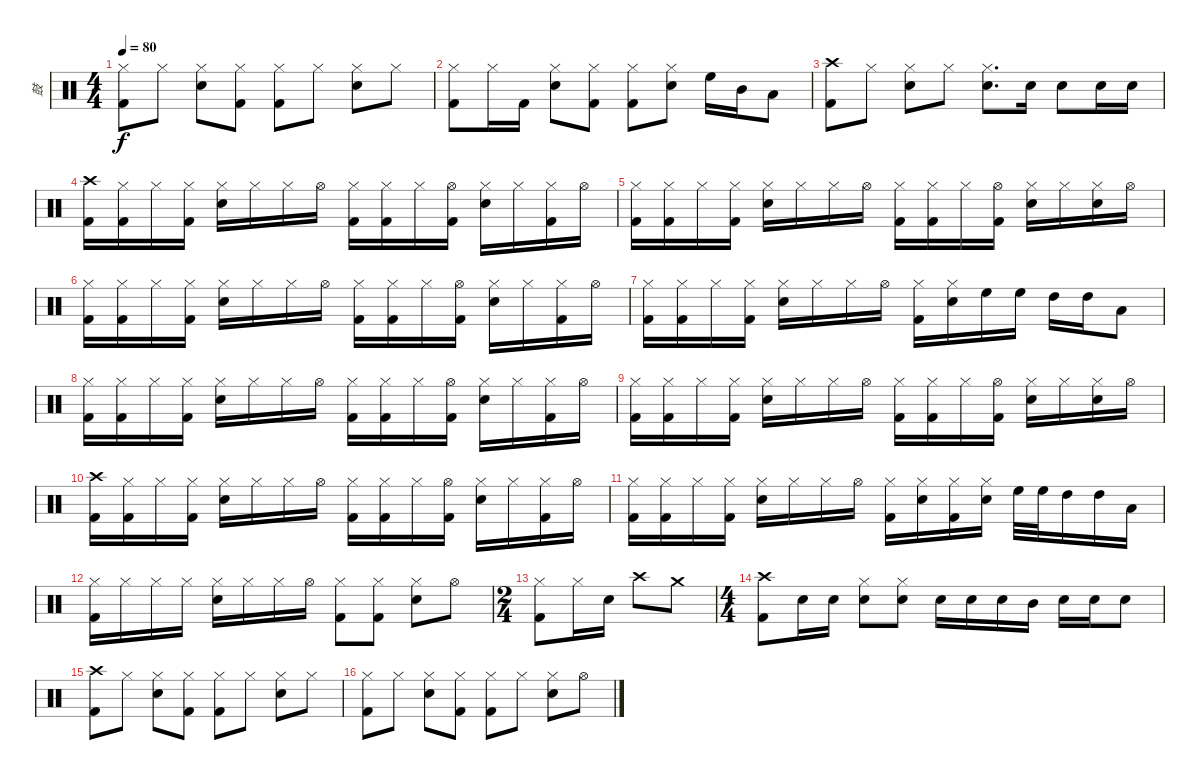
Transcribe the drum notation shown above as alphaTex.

\track ("鼓" "鼓") {instrument percussion}
\staff {score}
\articulation defaults
\ts (4 4)
\tempo 80
\clef neutral
\ks c
("Hi-Hat (closed)" "Kick (hit) 2").8{dy f} "Hi-Hat (closed)".8 ("Hi-Hat (closed)" "Snare (hit) 2").8 ("Hi-Hat (closed)" "Kick (hit) 2").8 ("Hi-Hat (closed)" "Kick (hit) 2").8 "Hi-Hat (closed)".8 ("Hi-Hat (closed)" "Snare (hit) 2").8 "Hi-Hat (closed)".8 |
("Hi-Hat (closed)" "Kick (hit) 2").8 "Hi-Hat (closed)".16 "Kick (hit) 2".16 ("Hi-Hat (closed)" "Snare (hit) 2").8 ("Hi-Hat (closed)" "Kick (hit) 2").8 ("Hi-Hat (closed)" "Kick (hit) 2").8 ("Hi-Hat (closed)" "Snare (hit) 2").8 "High Floor Tom (hit)".16 "Mid Tom (hit)".16 "Low Tom (hit)".8 |
("Crash high (hit)" "Kick (hit) 2").8 "Hi-Hat (closed)".8 ("Hi-Hat (closed)" "Snare (hit) 2").8 "Hi-Hat (closed)".8 ("Hi-Hat (closed)" "Snare (hit) 2").8{d} "Snare (hit) 2".16 "Snare (hit) 2".8 "Snare (hit) 2".16 "Snare (hit) 2".16 |
("Crash high (hit)" "Kick (hit) 2").16 ("Hi-Hat (closed)" "Kick (hit) 2").16 "Hi-Hat (closed)".16 ("Hi-Hat (closed)" "Kick (hit) 2").16 ("Hi-Hat (closed)" "Snare (hit) 2").16 "Hi-Hat (closed)".16 "Hi-Hat (closed)".16 "Hi-Hat (open)".16 ("Hi-Hat (closed)" "Kick (hit) 2").16 ("Hi-Hat (closed)" "Kick (hit) 2").16 "Hi-Hat (closed)".16 ("Hi-Hat (open)" "Kick (hit) 2").16 ("Hi-Hat (closed)" "Snare (hit) 2").16 "Hi-Hat (closed)".16 ("Hi-Hat (closed)" "Kick (hit) 2").16 "Hi-Hat (open)".16 |
("Hi-Hat (closed)" "Kick (hit) 2").16 ("Hi-Hat (closed)" "Kick (hit) 2").16 "Hi-Hat (closed)".16 ("Hi-Hat (closed)" "Kick (hit) 2").16 ("Hi-Hat (closed)" "Snare (hit) 2").16 "Hi-Hat (closed)".16 "Hi-Hat (closed)".16 "Hi-Hat (open)".16 ("Hi-Hat (closed)" "Kick (hit) 2").16 ("Hi-Hat (closed)" "Kick (hit) 2").16 "Hi-Hat (closed)".16 ("Hi-Hat (open)" "Kick (hit) 2").16 ("Hi-Hat (closed)" "Snare (hit) 2").16 "Hi-Hat (closed)".16 ("Hi-Hat (closed)" "Snare (hit) 2").16 "Hi-Hat (open)".16 |
("Hi-Hat (closed)" "Kick (hit) 2").16 ("Hi-Hat (closed)" "Kick (hit) 2").16 "Hi-Hat (closed)".16 ("Hi-Hat (closed)" "Kick (hit) 2").16 ("Hi-Hat (closed)" "Snare (hit) 2").16 "Hi-Hat (closed)".16 "Hi-Hat (closed)".16 "Hi-Hat (open)".16 ("Hi-Hat (closed)" "Kick (hit) 2").16 ("Hi-Hat (closed)" "Kick (hit) 2").16 "Hi-Hat (closed)".16 ("Hi-Hat (open)" "Kick (hit) 2").16 ("Hi-Hat (closed)" "Snare (hit) 2").16 "Hi-Hat (closed)".16 ("Hi-Hat (closed)" "Kick (hit) 2").16 "Hi-Hat (open)".16 |
("Hi-Hat (closed)" "Kick (hit) 2").16 ("Hi-Hat (closed)" "Kick (hit) 2").16 "Hi-Hat (closed)".16 ("Hi-Hat (closed)" "Kick (hit) 2").16 ("Hi-Hat (closed)" "Snare (hit) 2").16 "Hi-Hat (closed)".16 "Hi-Hat (closed)".16 "Hi-Hat (open)".16 ("Hi-Hat (closed)" "Kick (hit) 2").16 ("Hi-Hat (closed)" "Snare (hit) 2").16 "High Floor Tom (hit)".16 "High Floor Tom (hit)".16 "High Tom (hit)".16 "High Tom (hit)".16 "Low Tom (hit)".8 |
("Hi-Hat (closed)" "Kick (hit) 2").16 ("Hi-Hat (closed)" "Kick (hit) 2").16 "Hi-Hat (closed)".16 ("Hi-Hat (closed)" "Kick (hit) 2").16 ("Hi-Hat (closed)" "Snare (hit) 2").16 "Hi-Hat (closed)".16 "Hi-Hat (closed)".16 "Hi-Hat (open)".16 ("Hi-Hat (closed)" "Kick (hit) 2").16 ("Hi-Hat (closed)" "Kick (hit) 2").16 "Hi-Hat (closed)".16 ("Hi-Hat (open)" "Kick (hit) 2").16 ("Hi-Hat (closed)" "Snare (hit) 2").16 "Hi-Hat (closed)".16 ("Hi-Hat (closed)" "Kick (hit) 2").16 "Hi-Hat (open)".16 |
("Hi-Hat (closed)" "Kick (hit) 2").16 ("Hi-Hat (closed)" "Kick (hit) 2").16 "Hi-Hat (closed)".16 ("Hi-Hat (closed)" "Kick (hit) 2").16 ("Hi-Hat (closed)" "Snare (hit) 2").16 "Hi-Hat (closed)".16 "Hi-Hat (closed)".16 "Hi-Hat (open)".16 ("Hi-Hat (closed)" "Kick (hit) 2").16 ("Hi-Hat (closed)" "Kick (hit) 2").16 "Hi-Hat (closed)".16 ("Hi-Hat (open)" "Kick (hit) 2").16 ("Hi-Hat (closed)" "Snare (hit) 2").16 "Hi-Hat (closed)".16 ("Hi-Hat (closed)" "Snare (hit) 2").16 "Hi-Hat (open)".16 |
("Crash high (hit)" "Kick (hit) 2").16 ("Hi-Hat (closed)" "Kick (hit) 2").16 "Hi-Hat (closed)".16 ("Hi-Hat (closed)" "Kick (hit) 2").16 ("Hi-Hat (closed)" "Snare (hit) 2").16 "Hi-Hat (closed)".16 "Hi-Hat (closed)".16 "Hi-Hat (open)".16 ("Hi-Hat (closed)" "Kick (hit) 2").16 ("Hi-Hat (closed)" "Kick (hit) 2").16 "Hi-Hat (closed)".16 ("Hi-Hat (open)" "Kick (hit) 2").16 ("Hi-Hat (closed)" "Snare (hit) 2").16 "Hi-Hat (closed)".16 ("Hi-Hat (closed)" "Kick (hit) 2").16 "Hi-Hat (open)".16 |
("Hi-Hat (closed)" "Kick (hit) 2").16 ("Hi-Hat (closed)" "Kick (hit) 2").16 "Hi-Hat (closed)".16 ("Hi-Hat (closed)" "Kick (hit) 2").16 ("Hi-Hat (closed)" "Snare (hit) 2").16 "Hi-Hat (closed)".16 "Hi-Hat (closed)".16 "Hi-Hat (open)".16 ("Hi-Hat (closed)" "Kick (hit) 2").16 ("Hi-Hat (closed)" "Snare (hit) 2").16 ("Hi-Hat (closed)" "Kick (hit) 2").16 ("Hi-Hat (closed)" "Snare (hit) 2").16 "High Floor Tom (hit)".32 "High Floor Tom (hit)".32 "High Tom (hit)".16 "High Tom (hit)".16 "Low Tom (hit)".16 |
("Hi-Hat (closed)" "Kick (hit) 2").16 "Hi-Hat (closed)".16 "Hi-Hat (closed)".16 "Hi-Hat (closed)".16 ("Hi-Hat (closed)" "Snare (hit) 2").16 "Hi-Hat (closed)".16 "Hi-Hat (closed)".16 "Hi-Hat (open)".16 ("Hi-Hat (closed)" "Kick (hit) 2").8 ("Hi-Hat (closed)" "Kick (hit) 2").8 ("Hi-Hat (closed)" "Snare (hit) 2").8 "Hi-Hat (open)".8 |
\ts (2 4)
("Hi-Hat (closed)" "Kick (hit) 2").8 "Hi-Hat (closed)".16 "Snare (hit) 2".16 "Crash high (hit)".8 "Crash medium (hit)".8 |
\ts (4 4)
("Crash high (hit)" "Kick (hit) 2").8 "Snare (hit) 2".16 "Snare (hit) 2".16 ("Hi-Hat (closed)" "Snare (hit) 2").8 ("Hi-Hat (closed)" "Snare (hit) 2").8 "Snare (hit) 2".16 "Snare (hit) 2".16 "Snare (hit) 2".16 "Mid Tom (hit)".16 "Snare (hit) 2".16 "Snare (hit) 2".16 "Snare (hit) 2".8 |
("Crash high (hit)" "Kick (hit) 2").8 "Hi-Hat (closed)".8 ("Hi-Hat (closed)" "Snare (hit) 2").8 ("Hi-Hat (closed)" "Kick (hit) 2").8 ("Hi-Hat (closed)" "Kick (hit) 2").8 "Hi-Hat (closed)".8 ("Hi-Hat (closed)" "Snare (hit) 2").8 "Hi-Hat (closed)".8 |
("Hi-Hat (closed)" "Kick (hit) 2").8 "Hi-Hat (closed)".8 ("Hi-Hat (closed)" "Snare (hit) 2").8 ("Hi-Hat (closed)" "Kick (hit) 2").8 ("Hi-Hat (closed)" "Kick (hit) 2").8 "Hi-Hat (closed)".8 ("Hi-Hat (closed)" "Snare (hit) 2").8 "Hi-Hat (open)".8
